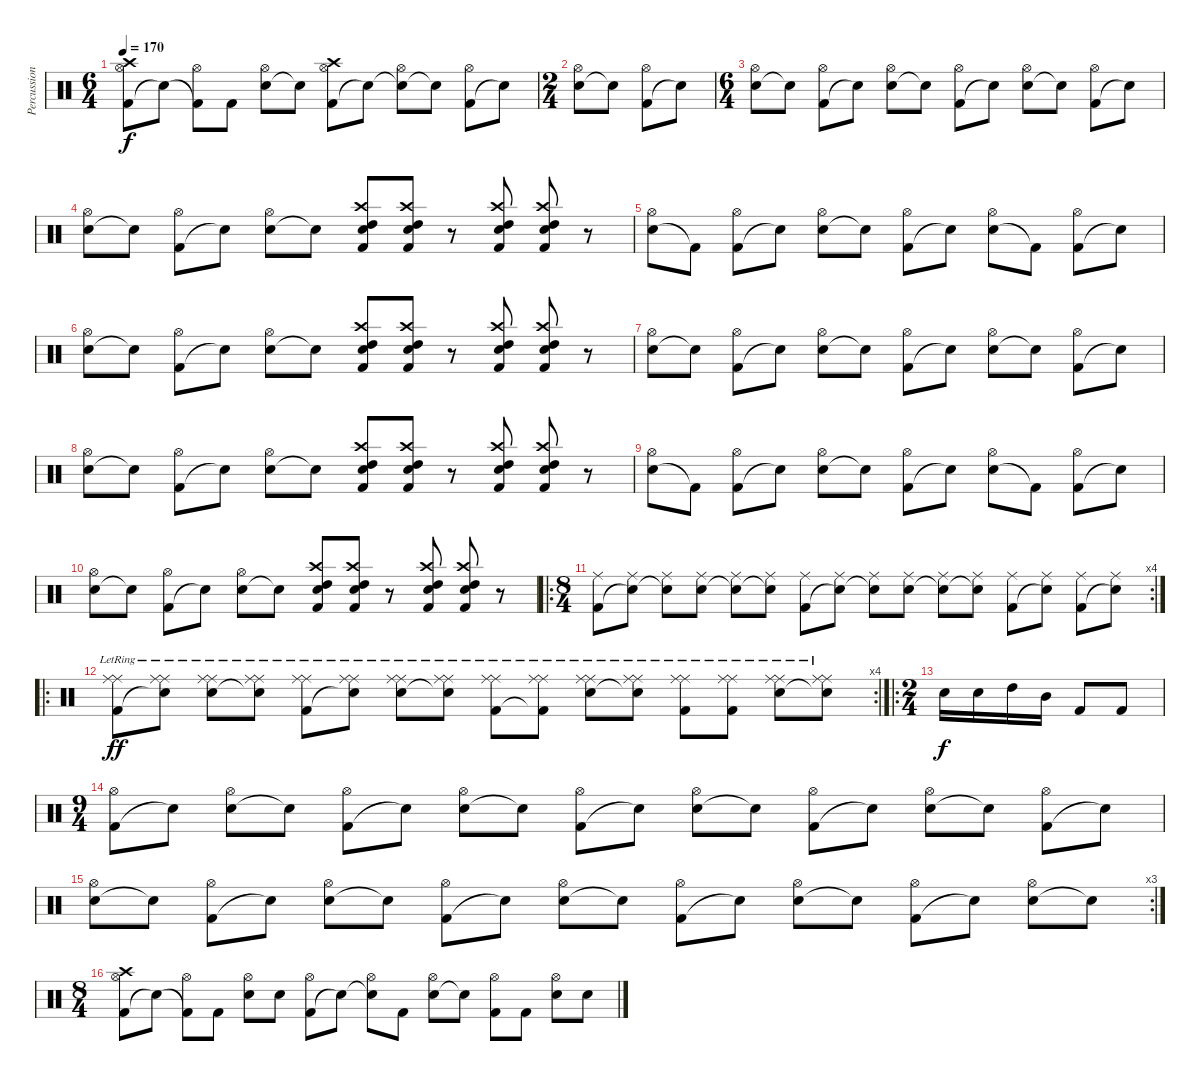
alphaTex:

\track ("Percussion" "Percussion") {instrument percussion}
\staff {score}
\articulation defaults
\ts (6 4)
\tempo 170
\clef neutral
\ks c
("Kick (hit) 2" "Hi-Hat (open)" "Crash high (hit)").8{dy f} "Snare (hit)"{t}.8 ("Kick (hit) 2"{t} "Hi-Hat (open)").8 "Kick (hit) 2".8 ("Electric Snare (hit)" "Hi-Hat (open)").8 "Snare (hit)"{t}.8 ("Kick (hit) 2" "Hi-Hat (open)" "Crash high (hit)").8 "Snare (hit)"{t}.8 ("Snare (hit)"{t} "Hi-Hat (open)").8 "Snare (hit)"{t}.8 ("Kick (hit) 2" "Hi-Hat (open)").8 "Snare (hit)"{t}.8 |
\ts (2 4)
("Electric Snare (hit)" "Hi-Hat (open)").8 "Snare (hit)"{t}.8 ("Kick (hit) 2" "Hi-Hat (open)").8 "Snare (hit)"{t}.8 |
\ts (6 4)
("Electric Snare (hit)" "Hi-Hat (open)").8 "Snare (hit)"{t}.8 ("Kick (hit) 2" "Hi-Hat (open)").8 "Snare (hit)"{t}.8 ("Electric Snare (hit)" "Hi-Hat (open)").8 "Snare (hit)"{t}.8 ("Kick (hit) 2" "Hi-Hat (open)").8 "Snare (hit)"{t}.8 ("Electric Snare (hit)" "Hi-Hat (open)").8 "Snare (hit)"{t}.8 ("Kick (hit) 2" "Hi-Hat (open)").8 "Snare (hit)"{t}.8 |
("Electric Snare (hit)" "Hi-Hat (open)").8 "Snare (hit)"{t}.8 ("Kick (hit) 2" "Hi-Hat (open)").8 "Snare (hit)"{t}.8 ("Electric Snare (hit)" "Hi-Hat (open)").8 "Snare (hit)"{t}.8 ("Electric Snare (hit)" "Kick (hit) 2" "High Tom (hit)" "Crash high (hit)").8 ("Electric Snare (hit)" "Kick (hit) 2" "High Tom (hit)" "Crash high (hit)").8 r.8 ("Electric Snare (hit)" "Kick (hit) 2" "High Tom (hit)" "Crash high (hit)").8 ("Electric Snare (hit)" "Kick (hit) 2" "High Tom (hit)" "Crash high (hit)").8 r.8 |
("Electric Snare (hit)" "Hi-Hat (open)").8 "Kick (hit) 2"{t}.8 ("Kick (hit) 2" "Hi-Hat (open)").8 "Snare (hit)"{t}.8 ("Electric Snare (hit)" "Hi-Hat (open)").8 "Snare (hit)"{t}.8 ("Kick (hit) 2" "Hi-Hat (open)").8 "Snare (hit)"{t}.8 ("Electric Snare (hit)" "Hi-Hat (open)").8 "Kick (hit) 2"{t}.8 ("Kick (hit) 2" "Hi-Hat (open)").8 "Electric Snare (hit)"{t}.8 |
("Electric Snare (hit)" "Hi-Hat (open)").8 "Snare (hit)"{t}.8 ("Kick (hit) 2" "Hi-Hat (open)").8 "Snare (hit)"{t}.8 ("Electric Snare (hit)" "Hi-Hat (open)").8 "Snare (hit)"{t}.8 ("Electric Snare (hit)" "Kick (hit) 2" "High Tom (hit)" "Crash high (hit)").8 ("Electric Snare (hit)" "Kick (hit) 2" "High Tom (hit)" "Crash high (hit)").8 r.8 ("Electric Snare (hit)" "Kick (hit) 2" "High Tom (hit)" "Crash high (hit)").8 ("Electric Snare (hit)" "Kick (hit) 2" "High Tom (hit)" "Crash high (hit)").8 r.8 |
("Electric Snare (hit)" "Hi-Hat (open)").8 "Snare (hit)"{t}.8 ("Kick (hit) 2" "Hi-Hat (open)").8 "Snare (hit)"{t}.8 ("Electric Snare (hit)" "Hi-Hat (open)").8 "Snare (hit)"{t}.8 ("Kick (hit) 2" "Hi-Hat (open)").8 "Snare (hit)"{t}.8 ("Electric Snare (hit)" "Hi-Hat (open)").8 "Snare (hit)"{t}.8 ("Kick (hit) 2" "Hi-Hat (open)").8 "Snare (hit)"{t}.8 |
("Electric Snare (hit)" "Hi-Hat (open)").8 "Snare (hit)"{t}.8 ("Kick (hit) 2" "Hi-Hat (open)").8 "Snare (hit)"{t}.8 ("Electric Snare (hit)" "Hi-Hat (open)").8 "Snare (hit)"{t}.8 ("Electric Snare (hit)" "Kick (hit) 2" "High Tom (hit)" "Crash high (hit)").8 ("Electric Snare (hit)" "Kick (hit) 2" "High Tom (hit)" "Crash high (hit)").8 r.8 ("Electric Snare (hit)" "Kick (hit) 2" "High Tom (hit)" "Crash high (hit)").8 ("Electric Snare (hit)" "Kick (hit) 2" "High Tom (hit)" "Crash high (hit)").8 r.8 |
("Electric Snare (hit)" "Hi-Hat (open)").8 "Kick (hit) 2"{t}.8 ("Kick (hit) 2" "Hi-Hat (open)").8 "Snare (hit)"{t}.8 ("Electric Snare (hit)" "Hi-Hat (open)").8 "Snare (hit)"{t}.8 ("Kick (hit) 2" "Hi-Hat (open)").8 "Snare (hit)"{t}.8 ("Electric Snare (hit)" "Hi-Hat (open)").8 "Kick (hit) 2"{t}.8 ("Kick (hit) 2" "Hi-Hat (open)").8 "Electric Snare (hit)"{t}.8 |
("Electric Snare (hit)" "Hi-Hat (open)").8 "Snare (hit)"{t}.8 ("Kick (hit) 2" "Hi-Hat (open)").8 "Snare (hit)"{t}.8 ("Electric Snare (hit)" "Hi-Hat (open)").8 "Snare (hit)"{t}.8 ("Electric Snare (hit)" "Kick (hit) 2" "High Tom (hit)" "Crash high (hit)").8 ("Electric Snare (hit)" "Kick (hit) 2" "High Tom (hit)" "Crash high (hit)").8 r.8 ("Electric Snare (hit)" "Kick (hit) 2" "High Tom (hit)" "Crash high (hit)").8 ("Electric Snare (hit)" "Kick (hit) 2" "High Tom (hit)" "Crash high (hit)").8 r.8 |
\ro
\rc 4
\ts (8 4)
("Kick (hit) 2" "Ride (middle)").8 ("Snare (hit)"{t} "Ride (middle)").8 ("Snare (hit)"{t} "Ride (middle)").8 ("Electric Snare (hit)" "Ride (middle)").8 ("Snare (hit)"{t} "Ride (middle)").8 ("Snare (hit)"{t} "Ride (middle)").8 ("Kick (hit) 2" "Ride (middle)").8 ("Snare (hit)"{t} "Ride (middle)").8 ("Snare (hit)"{t} "Ride (middle)").8 ("Electric Snare (hit)" "Ride (middle)").8 ("Snare (hit)"{t} "Ride (middle)").8 ("Snare (hit)"{t} "Ride (middle)").8 ("Kick (hit) 2" "Ride (middle)").8 ("Snare (hit)"{t} "Ride (middle)").8 ("Kick (hit) 2" "Ride (middle)").8 ("Snare (hit)"{t} "Ride (middle)").8 |
\ro
\rc 4
("Kick (hit) 2" "Ride (middle)"{lr} "Ride (middle)").8{dy ff} ("Snare (hit)"{t} "Ride (middle)"{lr} "Ride (middle)").8 ("Electric Snare (hit)" "Ride (middle)"{lr} "Ride (middle)").8 ("Snare (hit)"{t} "Ride (middle)"{lr} "Ride (middle)").8 ("Kick (hit) 2" "Ride (middle)"{lr} "Ride (middle)").8 ("Snare (hit)"{t} "Ride (middle)"{lr} "Ride (middle)").8 ("Electric Snare (hit)" "Ride (middle)"{lr} "Ride (middle)").8 ("Snare (hit)"{t} "Ride (middle)"{lr} "Ride (middle)").8 ("Kick (hit) 2" "Ride (middle)"{lr} "Ride (middle)").8 ("Kick (hit) 2"{t} "Ride (middle)"{lr} "Ride (middle)").8 ("Electric Snare (hit)" "Ride (middle)"{lr} "Ride (middle)").8 ("Snare (hit)"{t} "Ride (middle)"{lr} "Ride (middle)").8 ("Kick (hit) 2" "Ride (middle)"{lr} "Ride (middle)").8 ("Kick (hit) 2" "Ride (middle)"{lr} "Ride (middle)").8 ("Electric Snare (hit)" "Ride (middle)"{lr} "Ride (middle)").8 ("Snare (hit)"{t} "Ride (middle)"{lr} "Ride (middle)").8 |
\ro
\ts (2 4)
"Electric Snare (hit)".16{dy f} "Electric Snare (hit)".16 "High Tom (hit)".16 "Mid Tom (hit)".16 "Kick (hit) 2".8 "Kick (hit) 2".8 |
\ts (9 4)
("Kick (hit) 2" "Hi-Hat (open)").8 "Snare (hit)"{t}.8 ("Electric Snare (hit)" "Hi-Hat (open)").8 "Snare (hit)"{t}.8 ("Kick (hit) 2" "Hi-Hat (open)").8 "Snare (hit)"{t}.8 ("Electric Snare (hit)" "Hi-Hat (open)").8 "Snare (hit)"{t}.8 ("Kick (hit) 2" "Hi-Hat (open)").8 "Snare (hit)"{t}.8 ("Electric Snare (hit)" "Hi-Hat (open)").8 "Snare (hit)"{t}.8 ("Kick (hit) 2" "Hi-Hat (open)").8 "Snare (hit)"{t}.8 ("Electric Snare (hit)" "Hi-Hat (open)").8 "Snare (hit)"{t}.8 ("Kick (hit) 2" "Hi-Hat (open)").8 "Snare (hit)"{t}.8 |
\rc 3
("Electric Snare (hit)" "Hi-Hat (open)").8 "Snare (hit)"{t}.8 ("Kick (hit) 2" "Hi-Hat (open)").8 "Snare (hit)"{t}.8 ("Electric Snare (hit)" "Hi-Hat (open)").8 "Snare (hit)"{t}.8 ("Kick (hit) 2" "Hi-Hat (open)").8 "Snare (hit)"{t}.8 ("Electric Snare (hit)" "Hi-Hat (open)").8 "Snare (hit)"{t}.8 ("Kick (hit) 2" "Hi-Hat (open)").8 "Snare (hit)"{t}.8 ("Electric Snare (hit)" "Hi-Hat (open)").8 "Snare (hit)"{t}.8 ("Kick (hit) 2" "Hi-Hat (open)").8 "Snare (hit)"{t}.8 ("Electric Snare (hit)" "Hi-Hat (open)").8 "Snare (hit)"{t}.8 |
\ts (8 4)
("Kick (hit) 2" "Hi-Hat (open)" "Crash high (hit)").8 "Snare (hit)"{t}.8 ("Kick (hit) 2"{t} "Hi-Hat (open)").8 "Kick (hit) 2".8 ("Electric Snare (hit)" "Hi-Hat (open)").8 "Electric Snare (hit)".8 ("Kick (hit) 2" "Hi-Hat (open)").8 "Snare (hit)"{t}.8 ("Snare (hit)"{t} "Hi-Hat (open)").8 "Kick (hit) 2".8 ("Electric Snare (hit)" "Hi-Hat (open)").8 "Electric Snare (hit)"{t}.8 ("Kick (hit) 2" "Hi-Hat (open)").8 "Kick (hit) 2".8 ("Electric Snare (hit)" "Hi-Hat (open)").8 "Electric Snare (hit)".8
